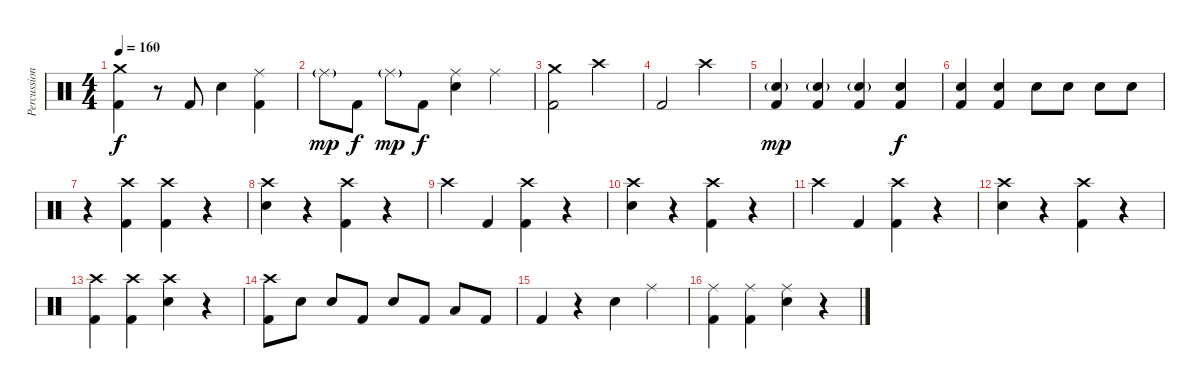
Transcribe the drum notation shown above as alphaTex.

\track ("Percussion" "Percussion") {instrument percussion}
\staff {score}
\articulation defaults
\ts (4 4)
\tempo 160
\clef neutral
\ks c
("Crash medium (hit)" "Kick (hit) 2").4{dy f} r.8 "Kick (hit) 2".8 "Snare (hit) 2".4 ("Ride (middle)" "Kick (hit) 2").4 |
"Ride (middle)"{g}.8{dy mp} "Kick (hit) 2".8{dy f} "Ride (middle)"{g}.8{dy mp} "Kick (hit) 2".8{dy f} ("Ride (middle)" "Snare (hit) 2").4 "Ride (middle)".4 |
("Crash medium (hit)" "Kick (hit) 2").2 "Crash high (hit)".2 |
"Kick (hit) 2".2 "Crash high (hit)".2 |
("Kick (hit) 2" "Snare (hit) 2"{g}).4{dy mp} ("Kick (hit) 2" "Snare (hit) 2"{g}).4 ("Kick (hit) 2" "Snare (hit) 2"{g}).4 ("Kick (hit) 2" "Snare (hit) 2").4{dy f} |
("Kick (hit) 2" "Snare (hit) 2").4 ("Kick (hit) 2" "Snare (hit) 2").4 "Snare (hit) 2".8 "Snare (hit) 2".8 "Snare (hit) 2".8 "Snare (hit) 2".8 |
r.4 ("Crash high (hit)" "Kick (hit) 2").4 ("Crash high (hit)" "Kick (hit) 2").4 r.4 |
("Crash high (hit)" "Snare (hit) 2").4 r.4 ("Crash high (hit)" "Kick (hit) 2").4 r.4 |
"Crash high (hit)".4 "Kick (hit) 2".4 ("Crash high (hit)" "Kick (hit) 2").4 r.4 |
("Crash high (hit)" "Snare (hit) 2").4 r.4 ("Crash high (hit)" "Kick (hit) 2").4 r.4 |
"Crash high (hit)".4 "Kick (hit) 2".4 ("Crash high (hit)" "Kick (hit) 2").4 r.4 |
("Crash high (hit)" "Snare (hit) 2").4 r.4 ("Crash high (hit)" "Kick (hit) 2").4 r.4 |
("Crash high (hit)" "Kick (hit) 2").4 ("Crash high (hit)" "Kick (hit) 2").4 ("Crash high (hit)" "Snare (hit) 2").4 r.4 |
("Crash high (hit)" "Kick (hit) 2").8 "Snare (hit) 2".8 "Snare (hit) 2".8 "Kick (hit) 2".8 "Snare (hit) 2".8 "Kick (hit) 2".8 "Low Tom (hit)".8 "Kick (hit) 2".8 |
"Kick (hit) 2".4 r.4 "Snare (hit) 2".4 "Ride (middle)".4 |
("Ride (middle)" "Kick (hit) 2").4 ("Ride (middle)" "Kick (hit) 2").4 ("Ride (middle)" "Snare (hit) 2").4 r.4
